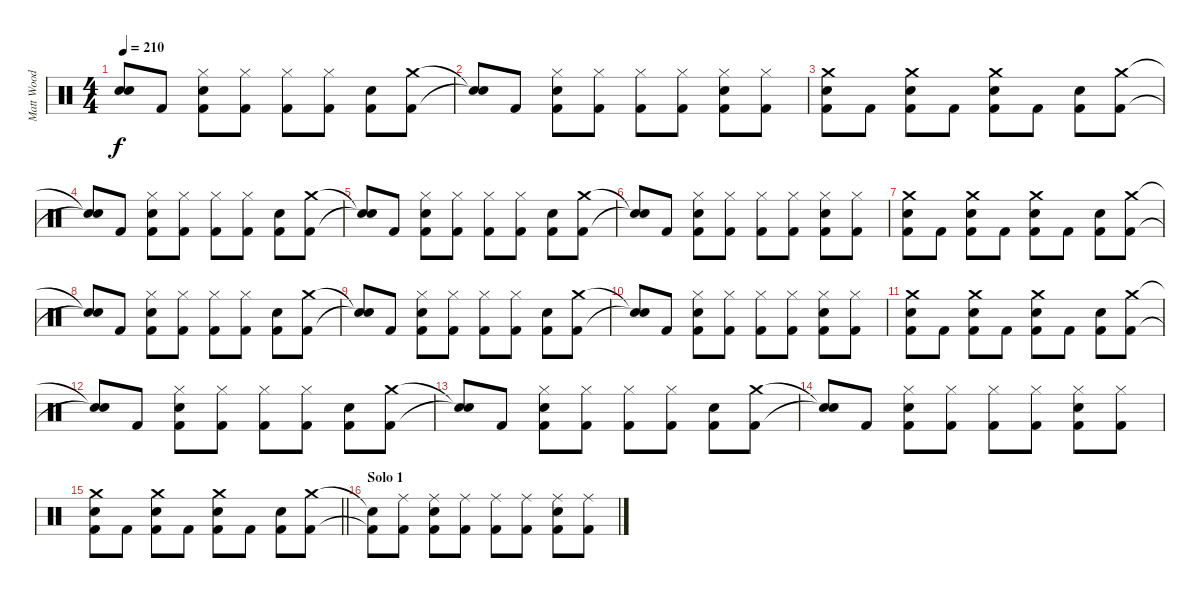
\track ("Matt Wood" "Matt Wood") {instrument percussion}
\staff {score}
\articulation defaults
\ts (4 4)
\tempo 210
\clef neutral
\ks c
("Snare (hit)"{t} "Snare (hit)"{t}).8{dy f} "Kick (hit) 2".8 ("Hi-Hat (closed)" "Snare (hit) 2" "Kick (hit) 2").8 ("Hi-Hat (closed)" "Kick (hit) 2").8 ("Hi-Hat (closed)" "Kick (hit) 2").8 ("Hi-Hat (closed)" "Kick (hit) 2").8 ("Snare (hit) 2" "Kick (hit) 2").8 ("Crash medium (hit)" "Kick (hit) 2").8 |
("Snare (hit)"{t} "Snare (hit)"{t}).8 "Kick (hit) 2".8 ("Hi-Hat (closed)" "Snare (hit) 2" "Kick (hit) 2").8 ("Hi-Hat (closed)" "Kick (hit) 2").8 ("Hi-Hat (closed)" "Kick (hit) 2").8 ("Hi-Hat (closed)" "Kick (hit) 2").8 ("Hi-Hat (closed)" "Snare (hit) 2" "Kick (hit) 2").8 ("Hi-Hat (closed)" "Kick (hit) 2").8 |
("Crash medium (hit)" "Snare (hit) 2" "Kick (hit) 2").8 "Kick (hit) 2".8 ("Crash medium (hit)" "Snare (hit) 2" "Kick (hit) 2").8 "Kick (hit) 2".8 ("Crash medium (hit)" "Snare (hit) 2" "Kick (hit) 2").8 "Kick (hit) 2".8 ("Snare (hit) 2" "Kick (hit) 2").8 ("Crash medium (hit)" "Kick (hit) 2").8 |
("Snare (hit)"{t} "Snare (hit)"{t}).8 "Kick (hit) 2".8 ("Hi-Hat (closed)" "Snare (hit) 2" "Kick (hit) 2").8 ("Hi-Hat (closed)" "Kick (hit) 2").8 ("Hi-Hat (closed)" "Kick (hit) 2").8 ("Hi-Hat (closed)" "Kick (hit) 2").8 ("Snare (hit) 2" "Kick (hit) 2").8 ("Crash medium (hit)" "Kick (hit) 2").8 |
("Snare (hit)"{t} "Snare (hit)"{t}).8 "Kick (hit) 2".8 ("Hi-Hat (closed)" "Snare (hit) 2" "Kick (hit) 2").8 ("Hi-Hat (closed)" "Kick (hit) 2").8 ("Hi-Hat (closed)" "Kick (hit) 2").8 ("Hi-Hat (closed)" "Kick (hit) 2").8 ("Snare (hit) 2" "Kick (hit) 2").8 ("Crash medium (hit)" "Kick (hit) 2").8 |
("Snare (hit)"{t} "Snare (hit)"{t}).8 "Kick (hit) 2".8 ("Hi-Hat (closed)" "Snare (hit) 2" "Kick (hit) 2").8 ("Hi-Hat (closed)" "Kick (hit) 2").8 ("Hi-Hat (closed)" "Kick (hit) 2").8 ("Hi-Hat (closed)" "Kick (hit) 2").8 ("Hi-Hat (closed)" "Snare (hit) 2" "Kick (hit) 2").8 ("Hi-Hat (closed)" "Kick (hit) 2").8 |
("Crash medium (hit)" "Snare (hit) 2" "Kick (hit) 2").8 "Kick (hit) 2".8 ("Crash medium (hit)" "Snare (hit) 2" "Kick (hit) 2").8 "Kick (hit) 2".8 ("Crash medium (hit)" "Snare (hit) 2" "Kick (hit) 2").8 "Kick (hit) 2".8 ("Snare (hit) 2" "Kick (hit) 2").8 ("Crash medium (hit)" "Kick (hit) 2").8 |
("Snare (hit)"{t} "Snare (hit)"{t}).8 "Kick (hit) 2".8 ("Hi-Hat (closed)" "Snare (hit) 2" "Kick (hit) 2").8 ("Hi-Hat (closed)" "Kick (hit) 2").8 ("Hi-Hat (closed)" "Kick (hit) 2").8 ("Hi-Hat (closed)" "Kick (hit) 2").8 ("Snare (hit) 2" "Kick (hit) 2").8 ("Crash medium (hit)" "Kick (hit) 2").8 |
("Snare (hit)"{t} "Snare (hit)"{t}).8 "Kick (hit) 2".8 ("Hi-Hat (closed)" "Snare (hit) 2" "Kick (hit) 2").8 ("Hi-Hat (closed)" "Kick (hit) 2").8 ("Hi-Hat (closed)" "Kick (hit) 2").8 ("Hi-Hat (closed)" "Kick (hit) 2").8 ("Snare (hit) 2" "Kick (hit) 2").8 ("Crash medium (hit)" "Kick (hit) 2").8 |
("Snare (hit)"{t} "Snare (hit)"{t}).8 "Kick (hit) 2".8 ("Hi-Hat (closed)" "Snare (hit) 2" "Kick (hit) 2").8 ("Hi-Hat (closed)" "Kick (hit) 2").8 ("Hi-Hat (closed)" "Kick (hit) 2").8 ("Hi-Hat (closed)" "Kick (hit) 2").8 ("Hi-Hat (closed)" "Snare (hit) 2" "Kick (hit) 2").8 ("Hi-Hat (closed)" "Kick (hit) 2").8 |
("Crash medium (hit)" "Snare (hit) 2" "Kick (hit) 2").8 "Kick (hit) 2".8 ("Crash medium (hit)" "Snare (hit) 2" "Kick (hit) 2").8 "Kick (hit) 2".8 ("Crash medium (hit)" "Snare (hit) 2" "Kick (hit) 2").8 "Kick (hit) 2".8 ("Snare (hit) 2" "Kick (hit) 2").8 ("Crash medium (hit)" "Kick (hit) 2").8 |
("Snare (hit)"{t} "Snare (hit)"{t}).8 "Kick (hit) 2".8 ("Hi-Hat (closed)" "Snare (hit) 2" "Kick (hit) 2").8 ("Hi-Hat (closed)" "Kick (hit) 2").8 ("Hi-Hat (closed)" "Kick (hit) 2").8 ("Hi-Hat (closed)" "Kick (hit) 2").8 ("Snare (hit) 2" "Kick (hit) 2").8 ("Crash medium (hit)" "Kick (hit) 2").8 |
("Snare (hit)"{t} "Snare (hit)"{t}).8 "Kick (hit) 2".8 ("Hi-Hat (closed)" "Snare (hit) 2" "Kick (hit) 2").8 ("Hi-Hat (closed)" "Kick (hit) 2").8 ("Hi-Hat (closed)" "Kick (hit) 2").8 ("Hi-Hat (closed)" "Kick (hit) 2").8 ("Snare (hit) 2" "Kick (hit) 2").8 ("Crash medium (hit)" "Kick (hit) 2").8 |
("Snare (hit)"{t} "Snare (hit)"{t}).8 "Kick (hit) 2".8 ("Hi-Hat (closed)" "Snare (hit) 2" "Kick (hit) 2").8 ("Hi-Hat (closed)" "Kick (hit) 2").8 ("Hi-Hat (closed)" "Kick (hit) 2").8 ("Hi-Hat (closed)" "Kick (hit) 2").8 ("Hi-Hat (closed)" "Snare (hit) 2" "Kick (hit) 2").8 ("Hi-Hat (closed)" "Kick (hit) 2").8 |
\barLineRight lightlight
("Crash medium (hit)" "Snare (hit) 2" "Kick (hit) 2").8 "Kick (hit) 2".8 ("Crash medium (hit)" "Snare (hit) 2" "Kick (hit) 2").8 "Kick (hit) 2".8 ("Crash medium (hit)" "Snare (hit) 2" "Kick (hit) 2").8 "Kick (hit) 2".8 ("Snare (hit) 2" "Kick (hit) 2").8 ("Crash medium (hit)" "Kick (hit) 2").8 |
\section ("" "Solo 1")
("Snare (hit)"{t} "Kick (hit) 2"{t}).8 ("Ride (middle)" "Kick (hit) 2").8 ("Ride (middle)" "Snare (hit) 2" "Kick (hit) 2").8 ("Ride (middle)" "Kick (hit) 2").8 ("Ride (middle)" "Kick (hit) 2").8 ("Ride (middle)" "Kick (hit) 2").8 ("Ride (middle)" "Snare (hit) 2" "Kick (hit) 2").8 ("Ride (middle)" "Kick (hit) 2").8
